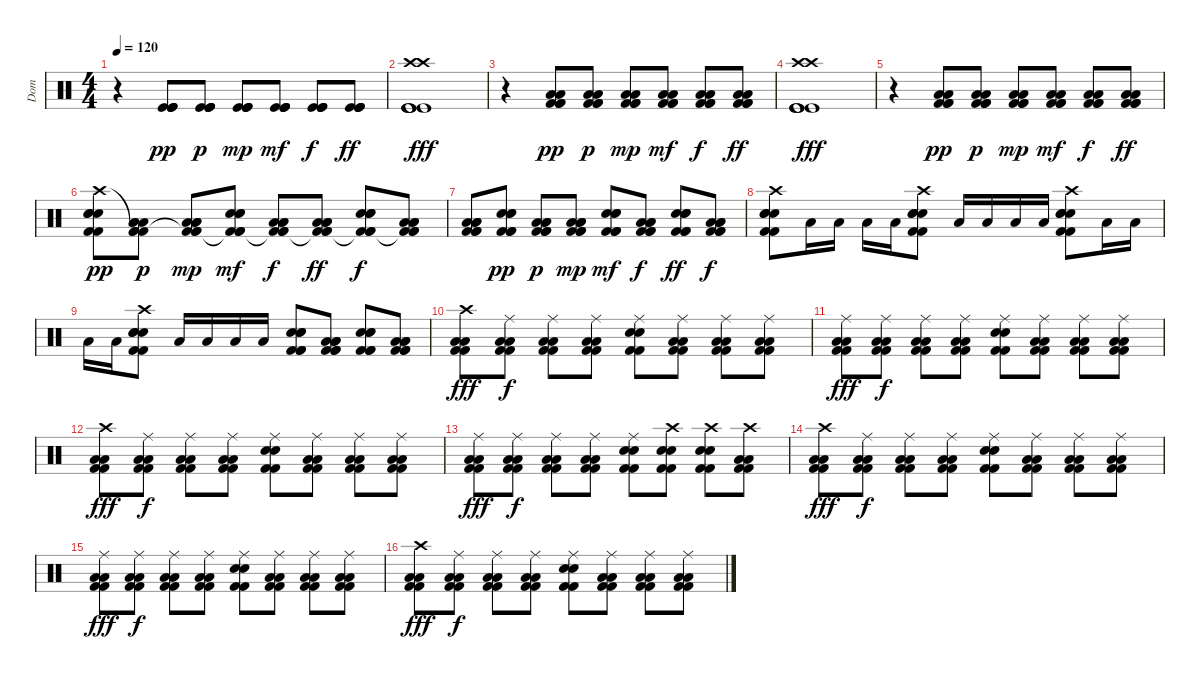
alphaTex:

\track ("Dom" "Dom") {instrument percussion}
\staff {score}
\articulation defaults
\ts (4 4)
\tempo 120
\clef neutral
\ks c
r.4{dy f} ("Kick (hit)" "Kick (hit)" "Kick (hit)" "Kick (hit)").8{dy pp} ("Kick (hit)" "Kick (hit)" "Kick (hit)" "Kick (hit)").8{dy p} ("Kick (hit)" "Kick (hit)" "Kick (hit)" "Kick (hit)").8{dy mp} ("Kick (hit)" "Kick (hit)" "Kick (hit)" "Kick (hit)").8{dy mf} ("Kick (hit)" "Kick (hit)" "Kick (hit)" "Kick (hit)").8{dy f} ("Kick (hit)" "Kick (hit)" "Kick (hit)" "Kick (hit)").8{dy ff} |
("Crash high (hit)" "Crash high (hit)" "Kick (hit)" "Kick (hit)" "Kick (hit)" "Kick (hit)").1{dy fff} |
r.4 ("Low Floor Tom (hit)" "Low Floor Tom (hit)" "Kick (hit) 2" "Kick (hit) 2" "Kick (hit) 2").8{dy pp} ("Low Floor Tom (hit)" "Low Floor Tom (hit)" "Kick (hit) 2" "Kick (hit) 2" "Kick (hit) 2").8{dy p} ("Low Floor Tom (hit)" "Low Floor Tom (hit)" "Kick (hit) 2" "Kick (hit) 2" "Kick (hit) 2").8{dy mp} ("Low Floor Tom (hit)" "Low Floor Tom (hit)" "Kick (hit) 2" "Kick (hit) 2" "Kick (hit) 2").8{dy mf} ("Low Floor Tom (hit)" "Low Floor Tom (hit)" "Kick (hit) 2" "Kick (hit) 2" "Kick (hit) 2").8{dy f} ("Low Floor Tom (hit)" "Low Floor Tom (hit)" "Kick (hit) 2" "Kick (hit) 2" "Kick (hit) 2").8{dy ff} |
("Crash high (hit)" "Crash high (hit)" "Kick (hit)" "Kick (hit)" "Kick (hit)" "Kick (hit)").1{dy fff} |
r.4 ("Low Floor Tom (hit)" "Low Floor Tom (hit)" "Kick (hit) 2" "Kick (hit) 2" "Kick (hit) 2").8{dy pp} ("Low Floor Tom (hit)" "Low Floor Tom (hit)" "Kick (hit) 2" "Kick (hit) 2" "Kick (hit) 2").8{dy p} ("Low Floor Tom (hit)" "Low Floor Tom (hit)" "Kick (hit) 2" "Kick (hit) 2" "Kick (hit) 2").8{dy mp} ("Low Floor Tom (hit)" "Low Floor Tom (hit)" "Kick (hit) 2" "Kick (hit) 2" "Kick (hit) 2").8{dy mf} ("Low Floor Tom (hit)" "Low Floor Tom (hit)" "Kick (hit) 2" "Kick (hit) 2" "Kick (hit) 2").8{dy f} ("Low Floor Tom (hit)" "Low Floor Tom (hit)" "Kick (hit) 2" "Kick (hit) 2" "Kick (hit) 2").8{dy ff} |
("Electric Snare (hit)" "Electric Snare (hit)" "Electric Snare (hit)" "Kick (hit) 2" "Kick (hit) 2" "Crash high (hit)").8{dy pp} ("Low Floor Tom (hit)" "Low Floor Tom (hit)" "Low Floor Tom (hit)" "Kick (hit) 2" "Kick (hit) 2" "Kick (hit) 2"{t}).8{dy p} ("Low Floor Tom (hit)" "Low Floor Tom (hit)" "Low Floor Tom (hit)" "Kick (hit) 2" "Kick (hit) 2" "Kick (hit) 2"{t}).8{dy mp} ("Electric Snare (hit)" "Electric Snare (hit)" "Electric Snare (hit)" "Kick (hit) 2" "Kick (hit) 2" "Kick (hit) 2"{t}).8{dy mf} ("Low Floor Tom (hit)" "Low Floor Tom (hit)" "Low Floor Tom (hit)" "Kick (hit) 2" "Kick (hit) 2" "Kick (hit) 2"{t}).8{dy f} ("Low Floor Tom (hit)" "Low Floor Tom (hit)" "Low Floor Tom (hit)" "Kick (hit) 2" "Kick (hit) 2" "Kick (hit) 2"{t}).8{dy ff} ("Electric Snare (hit)" "Electric Snare (hit)" "Electric Snare (hit)" "Kick (hit) 2" "Kick (hit) 2" "Kick (hit) 2"{t}).8{dy f} ("Low Floor Tom (hit)" "Low Floor Tom (hit)" "Low Floor Tom (hit)" "Kick (hit) 2" "Kick (hit) 2" "Kick (hit) 2"{t}).8 |
("Low Floor Tom (hit)" "Low Floor Tom (hit)" "Low Floor Tom (hit)" "Kick (hit) 2" "Kick (hit) 2" "Kick (hit) 2").8 ("Electric Snare (hit)" "Electric Snare (hit)" "Electric Snare (hit)" "Kick (hit) 2" "Kick (hit) 2" "Kick (hit) 2").8{dy pp} ("Low Floor Tom (hit)" "Low Floor Tom (hit)" "Low Floor Tom (hit)" "Kick (hit) 2" "Kick (hit) 2" "Kick (hit) 2").8{dy p} ("Low Floor Tom (hit)" "Low Floor Tom (hit)" "Low Floor Tom (hit)" "Kick (hit) 2" "Kick (hit) 2" "Kick (hit) 2").8{dy mp} ("Electric Snare (hit)" "Electric Snare (hit)" "Electric Snare (hit)" "Kick (hit) 2" "Kick (hit) 2" "Kick (hit) 2").8{dy mf} ("Low Floor Tom (hit)" "Low Floor Tom (hit)" "Low Floor Tom (hit)" "Kick (hit) 2" "Kick (hit) 2" "Kick (hit) 2").8{dy f} ("Electric Snare (hit)" "Electric Snare (hit)" "Electric Snare (hit)" "Kick (hit) 2" "Kick (hit) 2" "Kick (hit) 2").8{dy ff} ("Low Floor Tom (hit)" "Low Floor Tom (hit)" "Low Floor Tom (hit)" "Kick (hit) 2" "Kick (hit) 2" "Kick (hit) 2").8{dy f} |
("Electric Snare (hit)" "Electric Snare (hit)" "Electric Snare (hit)" "Kick (hit) 2" "Kick (hit) 2" "Crash high (hit)").8 "Low Tom (hit)".16 "Low Tom (hit)".16 "Low Tom (hit)".16 "Low Tom (hit)".16 ("Electric Snare (hit)" "Electric Snare (hit)" "Electric Snare (hit)" "Kick (hit) 2" "Kick (hit) 2" "Crash high (hit)").8 "Low Tom (hit)".16 "Low Tom (hit)".16 "Low Tom (hit)".16 "Low Tom (hit)".16 ("Electric Snare (hit)" "Electric Snare (hit)" "Electric Snare (hit)" "Kick (hit) 2" "Kick (hit) 2" "Crash high (hit)").8 "Low Tom (hit)".16 "Low Tom (hit)".16 |
"Low Tom (hit)".16 "Low Tom (hit)".16 ("Electric Snare (hit)" "Electric Snare (hit)" "Electric Snare (hit)" "Kick (hit) 2" "Kick (hit) 2" "Crash high (hit)").8 "Low Tom (hit)".16 "Low Tom (hit)".16 "Low Tom (hit)".16 "Low Tom (hit)".16 ("Electric Snare (hit)" "Electric Snare (hit)" "Electric Snare (hit)" "Kick (hit) 2" "Kick (hit) 2" "Kick (hit) 2").8 ("Low Floor Tom (hit)" "Low Floor Tom (hit)" "Low Floor Tom (hit)" "Kick (hit) 2" "Kick (hit) 2" "Kick (hit) 2").8 ("Electric Snare (hit)" "Electric Snare (hit)" "Electric Snare (hit)" "Kick (hit) 2" "Kick (hit) 2" "Kick (hit) 2").8 ("Low Floor Tom (hit)" "Low Floor Tom (hit)" "Low Floor Tom (hit)" "Kick (hit) 2" "Kick (hit) 2" "Kick (hit) 2").8 |
("Crash high (hit)" "Low Floor Tom (hit)" "Low Floor Tom (hit)" "Kick (hit) 2" "Kick (hit) 2").8{dy fff} ("Ride (middle)" "Low Floor Tom (hit)" "Low Floor Tom (hit)" "Kick (hit) 2" "Kick (hit) 2").8{dy f} ("Ride (middle)" "Low Floor Tom (hit)" "Low Floor Tom (hit)" "Kick (hit) 2" "Kick (hit) 2").8 ("Ride (middle)" "Low Floor Tom (hit)" "Low Floor Tom (hit)" "Kick (hit) 2" "Kick (hit) 2").8 ("Ride (middle)" "Electric Snare (hit)" "Electric Snare (hit)" "Kick (hit) 2" "Kick (hit) 2").8 ("Ride (middle)" "Low Floor Tom (hit)" "Low Floor Tom (hit)" "Kick (hit) 2" "Kick (hit) 2").8 ("Ride (middle)" "Low Floor Tom (hit)" "Low Floor Tom (hit)" "Kick (hit) 2" "Kick (hit) 2").8 ("Ride (middle)" "Low Floor Tom (hit)" "Low Floor Tom (hit)" "Kick (hit) 2" "Kick (hit) 2").8 |
("Ride (middle)" "Low Floor Tom (hit)" "Low Floor Tom (hit)" "Kick (hit) 2" "Kick (hit) 2").8{dy fff} ("Ride (middle)" "Low Floor Tom (hit)" "Low Floor Tom (hit)" "Kick (hit) 2" "Kick (hit) 2").8{dy f} ("Ride (middle)" "Low Floor Tom (hit)" "Low Floor Tom (hit)" "Kick (hit) 2" "Kick (hit) 2").8 ("Ride (middle)" "Low Floor Tom (hit)" "Low Floor Tom (hit)" "Kick (hit) 2" "Kick (hit) 2").8 ("Ride (middle)" "Electric Snare (hit)" "Electric Snare (hit)" "Kick (hit) 2" "Kick (hit) 2").8 ("Ride (middle)" "Low Floor Tom (hit)" "Low Floor Tom (hit)" "Kick (hit) 2" "Kick (hit) 2").8 ("Ride (middle)" "Low Floor Tom (hit)" "Low Floor Tom (hit)" "Kick (hit) 2" "Kick (hit) 2").8 ("Ride (middle)" "Low Floor Tom (hit)" "Low Floor Tom (hit)" "Kick (hit) 2" "Kick (hit) 2").8 |
("Crash high (hit)" "Low Floor Tom (hit)" "Low Floor Tom (hit)" "Kick (hit) 2" "Kick (hit) 2").8{dy fff} ("Ride (middle)" "Low Floor Tom (hit)" "Low Floor Tom (hit)" "Kick (hit) 2" "Kick (hit) 2").8{dy f} ("Ride (middle)" "Low Floor Tom (hit)" "Low Floor Tom (hit)" "Kick (hit) 2" "Kick (hit) 2").8 ("Ride (middle)" "Low Floor Tom (hit)" "Low Floor Tom (hit)" "Kick (hit) 2" "Kick (hit) 2").8 ("Ride (middle)" "Electric Snare (hit)" "Electric Snare (hit)" "Kick (hit) 2" "Kick (hit) 2").8 ("Ride (middle)" "Low Floor Tom (hit)" "Low Floor Tom (hit)" "Kick (hit) 2" "Kick (hit) 2").8 ("Ride (middle)" "Low Floor Tom (hit)" "Low Floor Tom (hit)" "Kick (hit) 2" "Kick (hit) 2").8 ("Ride (middle)" "Low Floor Tom (hit)" "Low Floor Tom (hit)" "Kick (hit) 2" "Kick (hit) 2").8 |
("Ride (middle)" "Low Floor Tom (hit)" "Low Floor Tom (hit)" "Kick (hit) 2" "Kick (hit) 2").8{dy fff} ("Ride (middle)" "Low Floor Tom (hit)" "Low Floor Tom (hit)" "Kick (hit) 2" "Kick (hit) 2").8{dy f} ("Ride (middle)" "Low Floor Tom (hit)" "Low Floor Tom (hit)" "Kick (hit) 2" "Kick (hit) 2").8 ("Ride (middle)" "Low Floor Tom (hit)" "Low Floor Tom (hit)" "Kick (hit) 2" "Kick (hit) 2").8 ("Ride (middle)" "Electric Snare (hit)" "Electric Snare (hit)" "Kick (hit) 2" "Kick (hit) 2").8 ("Crash high (hit)" "Electric Snare (hit)" "Electric Snare (hit)" "Kick (hit) 2" "Kick (hit) 2").8 ("Crash high (hit)" "Electric Snare (hit)" "Electric Snare (hit)" "Kick (hit) 2" "Kick (hit) 2").8 ("Crash high (hit)" "Low Floor Tom (hit)" "Low Floor Tom (hit)" "Kick (hit) 2" "Kick (hit) 2").8 |
("Crash high (hit)" "Low Floor Tom (hit)" "Low Floor Tom (hit)" "Kick (hit) 2" "Kick (hit) 2").8{dy fff} ("Ride (middle)" "Low Floor Tom (hit)" "Low Floor Tom (hit)" "Kick (hit) 2" "Kick (hit) 2").8{dy f} ("Ride (middle)" "Low Floor Tom (hit)" "Low Floor Tom (hit)" "Kick (hit) 2" "Kick (hit) 2").8 ("Ride (middle)" "Low Floor Tom (hit)" "Low Floor Tom (hit)" "Kick (hit) 2" "Kick (hit) 2").8 ("Ride (middle)" "Electric Snare (hit)" "Electric Snare (hit)" "Kick (hit) 2" "Kick (hit) 2").8 ("Ride (middle)" "Low Floor Tom (hit)" "Low Floor Tom (hit)" "Kick (hit) 2" "Kick (hit) 2").8 ("Ride (middle)" "Low Floor Tom (hit)" "Low Floor Tom (hit)" "Kick (hit) 2" "Kick (hit) 2").8 ("Ride (middle)" "Low Floor Tom (hit)" "Low Floor Tom (hit)" "Kick (hit) 2" "Kick (hit) 2").8 |
("Ride (middle)" "Low Floor Tom (hit)" "Low Floor Tom (hit)" "Kick (hit) 2" "Kick (hit) 2").8{dy fff} ("Ride (middle)" "Low Floor Tom (hit)" "Low Floor Tom (hit)" "Kick (hit) 2" "Kick (hit) 2").8{dy f} ("Ride (middle)" "Low Floor Tom (hit)" "Low Floor Tom (hit)" "Kick (hit) 2" "Kick (hit) 2").8 ("Ride (middle)" "Low Floor Tom (hit)" "Low Floor Tom (hit)" "Kick (hit) 2" "Kick (hit) 2").8 ("Ride (middle)" "Electric Snare (hit)" "Electric Snare (hit)" "Kick (hit) 2" "Kick (hit) 2").8 ("Ride (middle)" "Low Floor Tom (hit)" "Low Floor Tom (hit)" "Kick (hit) 2" "Kick (hit) 2").8 ("Ride (middle)" "Low Floor Tom (hit)" "Low Floor Tom (hit)" "Kick (hit) 2" "Kick (hit) 2").8 ("Ride (middle)" "Low Floor Tom (hit)" "Low Floor Tom (hit)" "Kick (hit) 2" "Kick (hit) 2").8 |
("Crash high (hit)" "Low Floor Tom (hit)" "Low Floor Tom (hit)" "Kick (hit) 2" "Kick (hit) 2").8{dy fff} ("Ride (middle)" "Low Floor Tom (hit)" "Low Floor Tom (hit)" "Kick (hit) 2" "Kick (hit) 2").8{dy f} ("Ride (middle)" "Low Floor Tom (hit)" "Low Floor Tom (hit)" "Kick (hit) 2" "Kick (hit) 2").8 ("Ride (middle)" "Low Floor Tom (hit)" "Low Floor Tom (hit)" "Kick (hit) 2" "Kick (hit) 2").8 ("Ride (middle)" "Electric Snare (hit)" "Electric Snare (hit)" "Kick (hit) 2" "Kick (hit) 2").8 ("Ride (middle)" "Low Floor Tom (hit)" "Low Floor Tom (hit)" "Kick (hit) 2" "Kick (hit) 2").8 ("Ride (middle)" "Low Floor Tom (hit)" "Low Floor Tom (hit)" "Kick (hit) 2" "Kick (hit) 2").8 ("Ride (middle)" "Low Floor Tom (hit)" "Low Floor Tom (hit)" "Kick (hit) 2" "Kick (hit) 2").8
